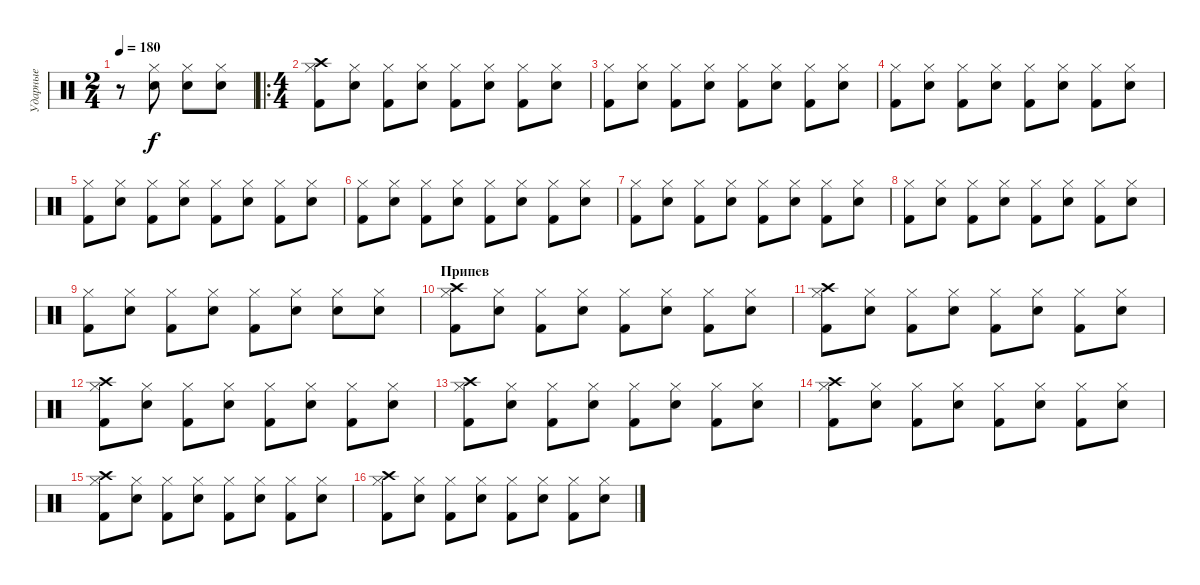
\track ("Ударные" "Ударные") {instrument percussion}
\staff {score}
\articulation defaults
\ts (2 4)
\tempo 180
\clef neutral
\ks c
r.8{dy f} ("Hi-Hat (closed)" "Electric Snare (hit)").8 ("Hi-Hat (closed)" "Electric Snare (hit)").8 ("Hi-Hat (closed)" "Electric Snare (hit)").8 |
\ro
\ts (4 4)
("Hi-Hat (closed)" "Kick (hit) 2" "Crash high (hit)").8 ("Hi-Hat (closed)" "Electric Snare (hit)").8 ("Hi-Hat (closed)" "Kick (hit) 2").8 ("Hi-Hat (closed)" "Electric Snare (hit)").8 ("Hi-Hat (closed)" "Kick (hit) 2").8 ("Hi-Hat (closed)" "Electric Snare (hit)").8 ("Hi-Hat (closed)" "Kick (hit) 2").8 ("Hi-Hat (closed)" "Electric Snare (hit)").8 |
("Hi-Hat (closed)" "Kick (hit) 2").8 ("Hi-Hat (closed)" "Electric Snare (hit)").8 ("Hi-Hat (closed)" "Kick (hit) 2").8 ("Hi-Hat (closed)" "Electric Snare (hit)").8 ("Hi-Hat (closed)" "Kick (hit) 2").8 ("Hi-Hat (closed)" "Electric Snare (hit)").8 ("Hi-Hat (closed)" "Kick (hit) 2").8 ("Hi-Hat (closed)" "Electric Snare (hit)").8 |
("Hi-Hat (closed)" "Kick (hit) 2").8 ("Hi-Hat (closed)" "Electric Snare (hit)").8 ("Hi-Hat (closed)" "Kick (hit) 2").8 ("Hi-Hat (closed)" "Electric Snare (hit)").8 ("Hi-Hat (closed)" "Kick (hit) 2").8 ("Hi-Hat (closed)" "Electric Snare (hit)").8 ("Hi-Hat (closed)" "Kick (hit) 2").8 ("Hi-Hat (closed)" "Electric Snare (hit)").8 |
("Hi-Hat (closed)" "Kick (hit) 2").8 ("Hi-Hat (closed)" "Electric Snare (hit)").8 ("Hi-Hat (closed)" "Kick (hit) 2").8 ("Hi-Hat (closed)" "Electric Snare (hit)").8 ("Hi-Hat (closed)" "Kick (hit) 2").8 ("Hi-Hat (closed)" "Electric Snare (hit)").8 ("Hi-Hat (closed)" "Kick (hit) 2").8 ("Hi-Hat (closed)" "Electric Snare (hit)").8 |
("Hi-Hat (closed)" "Kick (hit) 2").8 ("Hi-Hat (closed)" "Electric Snare (hit)").8 ("Hi-Hat (closed)" "Kick (hit) 2").8 ("Hi-Hat (closed)" "Electric Snare (hit)").8 ("Hi-Hat (closed)" "Kick (hit) 2").8 ("Hi-Hat (closed)" "Electric Snare (hit)").8 ("Hi-Hat (closed)" "Kick (hit) 2").8 ("Hi-Hat (closed)" "Electric Snare (hit)").8 |
("Hi-Hat (closed)" "Kick (hit) 2").8 ("Hi-Hat (closed)" "Electric Snare (hit)").8 ("Hi-Hat (closed)" "Kick (hit) 2").8 ("Hi-Hat (closed)" "Electric Snare (hit)").8 ("Hi-Hat (closed)" "Kick (hit) 2").8 ("Hi-Hat (closed)" "Electric Snare (hit)").8 ("Hi-Hat (closed)" "Kick (hit) 2").8 ("Hi-Hat (closed)" "Electric Snare (hit)").8 |
("Hi-Hat (closed)" "Kick (hit) 2").8 ("Hi-Hat (closed)" "Electric Snare (hit)").8 ("Hi-Hat (closed)" "Kick (hit) 2").8 ("Hi-Hat (closed)" "Electric Snare (hit)").8 ("Hi-Hat (closed)" "Kick (hit) 2").8 ("Hi-Hat (closed)" "Electric Snare (hit)").8 ("Hi-Hat (closed)" "Kick (hit) 2").8 ("Hi-Hat (closed)" "Electric Snare (hit)").8 |
("Hi-Hat (closed)" "Kick (hit) 2").8 ("Hi-Hat (closed)" "Electric Snare (hit)").8 ("Hi-Hat (closed)" "Kick (hit) 2").8 ("Hi-Hat (closed)" "Electric Snare (hit)").8 ("Hi-Hat (closed)" "Kick (hit) 2").8 ("Hi-Hat (closed)" "Electric Snare (hit)").8 ("Hi-Hat (closed)" "Electric Snare (hit)").8 ("Hi-Hat (closed)" "Electric Snare (hit)").8 |
\section ("" "Припев")
("Hi-Hat (closed)" "Kick (hit) 2" "Crash high (hit)").8 ("Hi-Hat (closed)" "Electric Snare (hit)").8 ("Hi-Hat (closed)" "Kick (hit) 2").8 ("Hi-Hat (closed)" "Electric Snare (hit)").8 ("Hi-Hat (closed)" "Kick (hit) 2").8 ("Hi-Hat (closed)" "Electric Snare (hit)").8 ("Hi-Hat (closed)" "Kick (hit) 2").8 ("Hi-Hat (closed)" "Electric Snare (hit)").8 |
("Hi-Hat (closed)" "Kick (hit) 2" "Crash high (hit)").8 ("Hi-Hat (closed)" "Electric Snare (hit)").8 ("Hi-Hat (closed)" "Kick (hit) 2").8 ("Hi-Hat (closed)" "Electric Snare (hit)").8 ("Hi-Hat (closed)" "Kick (hit) 2").8 ("Hi-Hat (closed)" "Electric Snare (hit)").8 ("Hi-Hat (closed)" "Kick (hit) 2").8 ("Hi-Hat (closed)" "Electric Snare (hit)").8 |
("Hi-Hat (closed)" "Kick (hit) 2" "Crash high (hit)").8 ("Hi-Hat (closed)" "Electric Snare (hit)").8 ("Hi-Hat (closed)" "Kick (hit) 2").8 ("Hi-Hat (closed)" "Electric Snare (hit)").8 ("Hi-Hat (closed)" "Kick (hit) 2").8 ("Hi-Hat (closed)" "Electric Snare (hit)").8 ("Hi-Hat (closed)" "Kick (hit) 2").8 ("Hi-Hat (closed)" "Electric Snare (hit)").8 |
("Hi-Hat (closed)" "Kick (hit) 2" "Crash high (hit)").8 ("Hi-Hat (closed)" "Electric Snare (hit)").8 ("Hi-Hat (closed)" "Kick (hit) 2").8 ("Hi-Hat (closed)" "Electric Snare (hit)").8 ("Hi-Hat (closed)" "Kick (hit) 2").8 ("Hi-Hat (closed)" "Electric Snare (hit)").8 ("Hi-Hat (closed)" "Kick (hit) 2").8 ("Hi-Hat (closed)" "Electric Snare (hit)").8 |
("Hi-Hat (closed)" "Kick (hit) 2" "Crash high (hit)").8 ("Hi-Hat (closed)" "Electric Snare (hit)").8 ("Hi-Hat (closed)" "Kick (hit) 2").8 ("Hi-Hat (closed)" "Electric Snare (hit)").8 ("Hi-Hat (closed)" "Kick (hit) 2").8 ("Hi-Hat (closed)" "Electric Snare (hit)").8 ("Hi-Hat (closed)" "Kick (hit) 2").8 ("Hi-Hat (closed)" "Electric Snare (hit)").8 |
("Hi-Hat (closed)" "Kick (hit) 2" "Crash high (hit)").8 ("Hi-Hat (closed)" "Electric Snare (hit)").8 ("Hi-Hat (closed)" "Kick (hit) 2").8 ("Hi-Hat (closed)" "Electric Snare (hit)").8 ("Hi-Hat (closed)" "Kick (hit) 2").8 ("Hi-Hat (closed)" "Electric Snare (hit)").8 ("Hi-Hat (closed)" "Kick (hit) 2").8 ("Hi-Hat (closed)" "Electric Snare (hit)").8 |
("Hi-Hat (closed)" "Kick (hit) 2" "Crash high (hit)").8 ("Hi-Hat (closed)" "Electric Snare (hit)").8 ("Hi-Hat (closed)" "Kick (hit) 2").8 ("Hi-Hat (closed)" "Electric Snare (hit)").8 ("Hi-Hat (closed)" "Kick (hit) 2").8 ("Hi-Hat (closed)" "Electric Snare (hit)").8 ("Hi-Hat (closed)" "Kick (hit) 2").8 ("Hi-Hat (closed)" "Electric Snare (hit)").8
